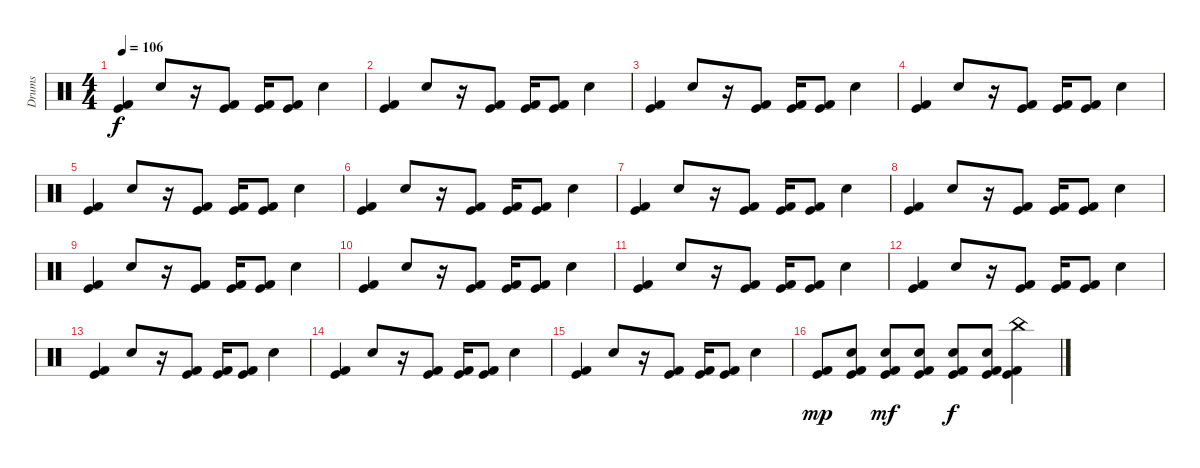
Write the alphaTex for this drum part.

\track ("Drums" "Drums") {instrument percussion}
\staff {score}
\articulation defaults
\ts (4 4)
\tempo 106
\clef neutral
\ks c
("Kick (hit)" "Kick (hit) 2").4{dy f} "Snare (hit) 2".8 r.16 ("Kick (hit)" "Kick (hit) 2").8 ("Kick (hit)" "Kick (hit) 2").16 ("Kick (hit)" "Kick (hit) 2").8 "Snare (hit) 2".4 |
("Kick (hit)" "Kick (hit) 2").4 "Snare (hit) 2".8 r.16 ("Kick (hit)" "Kick (hit) 2").8 ("Kick (hit)" "Kick (hit) 2").16 ("Kick (hit)" "Kick (hit) 2").8 "Snare (hit) 2".4 |
("Kick (hit)" "Kick (hit) 2").4 "Snare (hit) 2".8 r.16 ("Kick (hit)" "Kick (hit) 2").8 ("Kick (hit)" "Kick (hit) 2").16 ("Kick (hit)" "Kick (hit) 2").8 "Snare (hit) 2".4 |
("Kick (hit)" "Kick (hit) 2").4 "Snare (hit) 2".8 r.16 ("Kick (hit)" "Kick (hit) 2").8 ("Kick (hit)" "Kick (hit) 2").16 ("Kick (hit)" "Kick (hit) 2").8 "Snare (hit) 2".4 |
("Kick (hit)" "Kick (hit) 2").4 "Snare (hit) 2".8 r.16 ("Kick (hit)" "Kick (hit) 2").8 ("Kick (hit)" "Kick (hit) 2").16 ("Kick (hit)" "Kick (hit) 2").8 "Snare (hit) 2".4 |
("Kick (hit)" "Kick (hit) 2").4 "Snare (hit) 2".8 r.16 ("Kick (hit)" "Kick (hit) 2").8 ("Kick (hit)" "Kick (hit) 2").16 ("Kick (hit)" "Kick (hit) 2").8 "Snare (hit) 2".4 |
("Kick (hit)" "Kick (hit) 2").4 "Snare (hit) 2".8 r.16 ("Kick (hit)" "Kick (hit) 2").8 ("Kick (hit)" "Kick (hit) 2").16 ("Kick (hit)" "Kick (hit) 2").8 "Snare (hit) 2".4 |
("Kick (hit)" "Kick (hit) 2").4 "Snare (hit) 2".8 r.16 ("Kick (hit)" "Kick (hit) 2").8 ("Kick (hit)" "Kick (hit) 2").16 ("Kick (hit)" "Kick (hit) 2").8 "Snare (hit) 2".4 |
("Kick (hit)" "Kick (hit) 2").4 "Snare (hit) 2".8 r.16 ("Kick (hit)" "Kick (hit) 2").8 ("Kick (hit)" "Kick (hit) 2").16 ("Kick (hit)" "Kick (hit) 2").8 "Snare (hit) 2".4 |
("Kick (hit)" "Kick (hit) 2").4 "Snare (hit) 2".8 r.16 ("Kick (hit)" "Kick (hit) 2").8 ("Kick (hit)" "Kick (hit) 2").16 ("Kick (hit)" "Kick (hit) 2").8 "Snare (hit) 2".4 |
("Kick (hit)" "Kick (hit) 2").4 "Snare (hit) 2".8 r.16 ("Kick (hit)" "Kick (hit) 2").8 ("Kick (hit)" "Kick (hit) 2").16 ("Kick (hit)" "Kick (hit) 2").8 "Snare (hit) 2".4 |
("Kick (hit)" "Kick (hit) 2").4 "Snare (hit) 2".8 r.16 ("Kick (hit)" "Kick (hit) 2").8 ("Kick (hit)" "Kick (hit) 2").16 ("Kick (hit)" "Kick (hit) 2").8 "Snare (hit) 2".4 |
("Kick (hit)" "Kick (hit) 2").4 "Snare (hit) 2".8 r.16 ("Kick (hit)" "Kick (hit) 2").8 ("Kick (hit)" "Kick (hit) 2").16 ("Kick (hit)" "Kick (hit) 2").8 "Snare (hit) 2".4 |
("Kick (hit)" "Kick (hit) 2").4 "Snare (hit) 2".8 r.16 ("Kick (hit)" "Kick (hit) 2").8 ("Kick (hit)" "Kick (hit) 2").16 ("Kick (hit)" "Kick (hit) 2").8 "Snare (hit) 2".4 |
("Kick (hit)" "Kick (hit) 2").4 "Snare (hit) 2".8 r.16 ("Kick (hit)" "Kick (hit) 2").8 ("Kick (hit)" "Kick (hit) 2").16 ("Kick (hit)" "Kick (hit) 2").8 "Snare (hit) 2".4 |
("Kick (hit)" "Kick (hit) 2").8{dy mp} ("Kick (hit)" "Kick (hit) 2" "Electric Snare (hit)").8 ("Kick (hit)" "Kick (hit) 2" "Electric Snare (hit)").8{dy mf} ("Kick (hit)" "Kick (hit) 2" "Electric Snare (hit)").8 ("Kick (hit)" "Kick (hit) 2" "Electric Snare (hit)").8{dy f} ("Kick (hit)" "Kick (hit) 2" "Electric Snare (hit)").8 ("China (hit)" "Kick (hit)" "Kick (hit) 2").4
